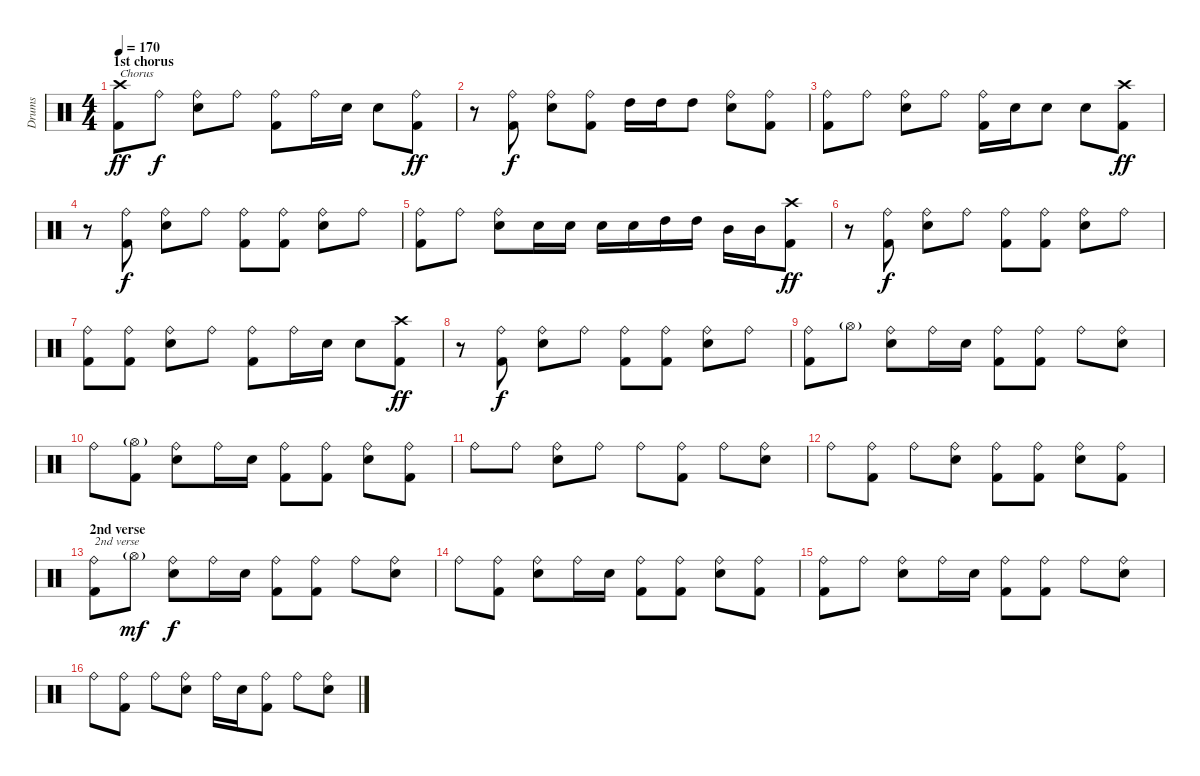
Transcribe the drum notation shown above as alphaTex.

\track ("Drums" "Drums") {instrument percussion}
\staff {score}
\articulation defaults
\ts (4 4)
\section ("" "1st chorus")
\tempo 170
\clef neutral
\ks c
("Crash high (hit)" "Kick (hit) 2").8{txt "Chorus" dy ff} "Ride (bell)".8{dy f} ("Ride (bell)" "Electric Snare (hit)").8 "Ride (bell)".8 ("Ride (bell)" "Kick (hit) 2").8 "Ride (bell)".16 "Electric Snare (hit)".16 "Electric Snare (hit)".8 ("Ride (bell)" "Kick (hit) 2").8{dy ff} |
r.8 ("Ride (bell)" "Kick (hit) 2").8{dy f} ("Ride (bell)" "Electric Snare (hit)").8 ("Ride (bell)" "Kick (hit) 2").8 "High Tom (hit)".16 "High Tom (hit)".16 "High Tom (hit)".8 ("Ride (bell)" "Electric Snare (hit)").8 ("Ride (bell)" "Kick (hit) 2").8 |
("Ride (bell)" "Kick (hit) 2").8 "Ride (bell)".8 ("Ride (bell)" "Electric Snare (hit)").8 "Ride (bell)".8 ("Ride (bell)" "Kick (hit) 2").16 "Electric Snare (hit)".16 "Electric Snare (hit)".8 "Electric Snare (hit)".8 ("Crash high (hit)" "Kick (hit) 2").8{dy ff} |
r.8 ("Ride (bell)" "Kick (hit) 2").8{dy f} ("Ride (bell)" "Electric Snare (hit)").8 "Ride (bell)".8 ("Ride (bell)" "Kick (hit) 2").8 ("Ride (bell)" "Kick (hit) 2").8 ("Ride (bell)" "Electric Snare (hit)").8 "Ride (bell)".8 |
("Ride (bell)" "Kick (hit) 2").8 "Ride (bell)".8 ("Ride (bell)" "Electric Snare (hit)").8 "Electric Snare (hit)".16 "Electric Snare (hit)".16 "Electric Snare (hit)".16 "Electric Snare (hit)".16 "High Tom (hit)".16 "High Tom (hit)".16 "Mid Tom (hit)".16 "Mid Tom (hit)".16 ("Crash high (hit)" "Kick (hit) 2").8{dy ff} |
r.8 ("Ride (bell)" "Kick (hit) 2").8{dy f} ("Ride (bell)" "Electric Snare (hit)").8 "Ride (bell)".8 ("Ride (bell)" "Kick (hit) 2").8 ("Ride (bell)" "Kick (hit) 2").8 ("Ride (bell)" "Electric Snare (hit)").8 "Ride (bell)".8 |
("Ride (bell)" "Kick (hit) 2").8 ("Ride (bell)" "Kick (hit) 2").8 ("Ride (bell)" "Electric Snare (hit)").8 "Ride (bell)".8 ("Ride (bell)" "Kick (hit) 2").8 "Ride (bell)".16 "Electric Snare (hit)".16 "Electric Snare (hit)".8 ("Crash high (hit)" "Kick (hit) 2").8{dy ff} |
r.8 ("Ride (bell)" "Kick (hit) 2").8{dy f} ("Ride (bell)" "Electric Snare (hit)").8 "Ride (bell)".8 ("Ride (bell)" "Kick (hit) 2").8 ("Ride (bell)" "Kick (hit) 2").8 ("Ride (bell)" "Electric Snare (hit)").8 "Ride (bell)".8 |
("Ride (bell)" "Kick (hit) 2").8 "Hi-Hat (open)"{g}.8 ("Ride (bell)" "Electric Snare (hit)").8 "Ride (bell)".16 "Electric Snare (hit)".16 ("Ride (bell)" "Kick (hit) 2").8 ("Ride (bell)" "Kick (hit) 2").8 "Ride (bell)".8 ("Ride (bell)" "Electric Snare (hit)").8 |
"Ride (bell)".8 ("Hi-Hat (open)"{g} "Kick (hit) 2").8 ("Ride (bell)" "Electric Snare (hit)").8 "Ride (bell)".16 "Electric Snare (hit)".16 ("Ride (bell)" "Kick (hit) 2").8 ("Ride (bell)" "Kick (hit) 2").8 ("Ride (bell)" "Electric Snare (hit)").8 ("Ride (bell)" "Kick (hit) 2").8 |
"Ride (bell)".8 "Ride (bell)".8 ("Ride (bell)" "Electric Snare (hit)").8 "Ride (bell)".8 "Ride (bell)".8 ("Ride (bell)" "Kick (hit) 2").8 "Ride (bell)".8 ("Ride (bell)" "Electric Snare (hit)").8 |
"Ride (bell)".8 ("Ride (bell)" "Kick (hit) 2").8 "Ride (bell)".8 ("Ride (bell)" "Electric Snare (hit)").8 ("Ride (bell)" "Kick (hit) 2").8 ("Ride (bell)" "Kick (hit) 2").8 ("Ride (bell)" "Electric Snare (hit)").8 ("Ride (bell)" "Kick (hit) 2").8 |
\section ("" "2nd verse")
("Ride (bell)" "Kick (hit) 2").8{txt "2nd verse"} "Hi-Hat (open)"{g}.8{dy mf} ("Ride (bell)" "Electric Snare (hit)").8{dy f} "Ride (bell)".16 "Electric Snare (hit)".16 ("Ride (bell)" "Kick (hit) 2").8 ("Ride (bell)" "Kick (hit) 2").8 "Ride (bell)".8 ("Ride (bell)" "Electric Snare (hit)").8 |
"Ride (bell)".8 ("Ride (bell)" "Kick (hit) 2").8 ("Ride (bell)" "Electric Snare (hit)").8 "Ride (bell)".16 "Electric Snare (hit)".16 ("Ride (bell)" "Kick (hit) 2").8 ("Ride (bell)" "Kick (hit) 2").8 ("Ride (bell)" "Electric Snare (hit)").8 ("Ride (bell)" "Kick (hit) 2").8 |
("Ride (bell)" "Kick (hit) 2").8 "Ride (bell)".8 ("Ride (bell)" "Electric Snare (hit)").8 "Ride (bell)".16 "Electric Snare (hit)".16 ("Ride (bell)" "Kick (hit) 2").8 ("Ride (bell)" "Kick (hit) 2").8 "Ride (bell)".8 ("Ride (bell)" "Electric Snare (hit)").8 |
"Ride (bell)".8 ("Ride (bell)" "Kick (hit) 2").8 "Ride (bell)".8 ("Ride (bell)" "Electric Snare (hit)").8 "Ride (bell)".16 "Electric Snare (hit)".16 ("Ride (bell)" "Kick (hit) 2").8 "Ride (bell)".8 ("Ride (bell)" "Electric Snare (hit)").8
